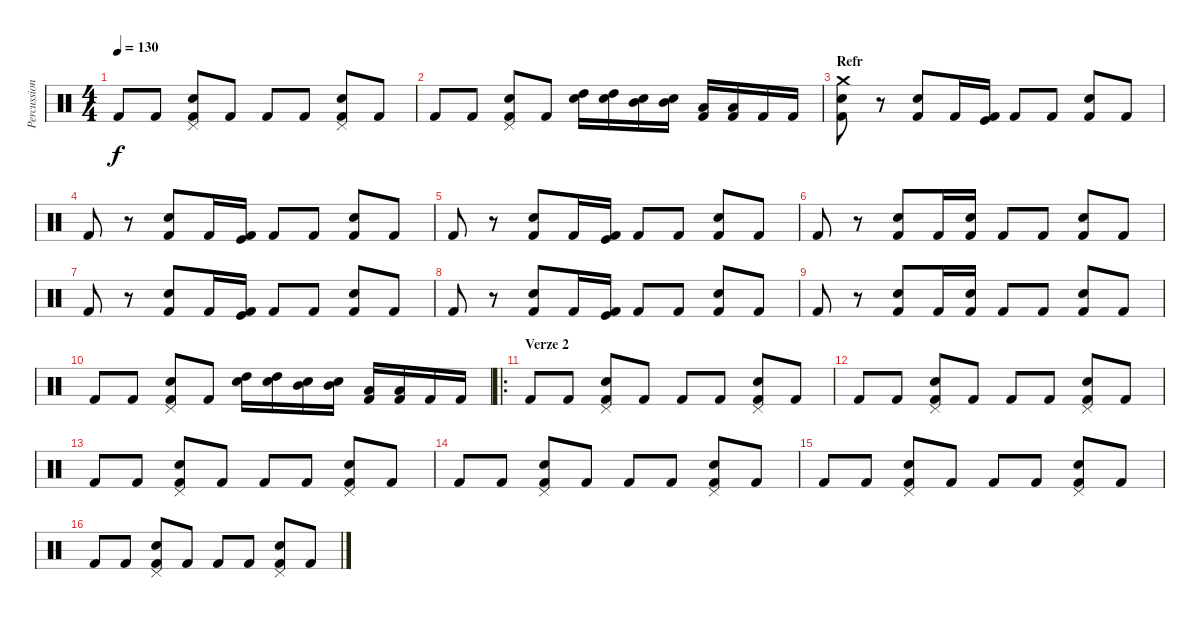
\track ("Percussion" "Percussion") {instrument percussion}
\staff {score}
\articulation defaults
\ts (4 4)
\tempo 130
\clef neutral
\ks c "Kick (hit) 2".8{dy f} "Kick (hit) 2".8
("Snare (hit) 2" "Kick (hit) 2" "Pedal Hi-Hat (hit)").8 "Kick (hit) 2".8 "Kick (hit) 2".8 "Kick (hit) 2".8 ("Snare (hit) 2" "Kick (hit) 2" "Pedal Hi-Hat (hit)").8 "Kick (hit) 2".8 |
"Kick (hit) 2".8 "Kick (hit) 2".8 ("Snare (hit) 2" "Kick (hit) 2" "Pedal Hi-Hat (hit)").8 "Kick (hit) 2".8 ("Electric Snare (hit)" "High Tom (hit)").16 ("Electric Snare (hit)" "High Tom (hit)").16 ("Electric Snare (hit)" "Mid Tom (hit)").16 ("Electric Snare (hit)" "Mid Tom (hit)").16 ("Kick (hit) 2" "Low Tom (hit)").16 ("Kick (hit) 2" "Low Tom (hit)").16 "Kick (hit) 2".16 "Kick (hit) 2".16 |
\section ("" "Refr")
("Kick (hit) 2" "Snare (hit) 2" "Crash medium (hit)").8 r.8 ("Electric Snare (hit)" "Kick (hit) 2").8 "Kick (hit) 2".16 ("Kick (hit) 2" "Kick (hit)").16 "Kick (hit) 2".8 "Kick (hit) 2".8 ("Snare (hit) 2" "Kick (hit) 2").8 "Kick (hit) 2".8 |
"Kick (hit) 2".8 r.8 ("Electric Snare (hit)" "Kick (hit) 2").8 "Kick (hit) 2".16 ("Kick (hit) 2" "Kick (hit)").16 "Kick (hit) 2".8 "Kick (hit) 2".8 ("Snare (hit) 2" "Kick (hit) 2").8 "Kick (hit) 2".8 |
"Kick (hit) 2".8 r.8 ("Electric Snare (hit)" "Kick (hit) 2").8 "Kick (hit) 2".16 ("Kick (hit) 2" "Kick (hit)").16 "Kick (hit) 2".8 "Kick (hit) 2".8 ("Snare (hit) 2" "Kick (hit) 2").8 "Kick (hit) 2".8 |
"Kick (hit) 2".8 r.8 ("Electric Snare (hit)" "Kick (hit) 2").8 "Kick (hit) 2".16 ("Kick (hit) 2" "Snare (hit) 2").16 "Kick (hit) 2".8 "Kick (hit) 2".8 ("Snare (hit) 2" "Kick (hit) 2").8 "Kick (hit) 2".8 |
"Kick (hit) 2".8 r.8 ("Electric Snare (hit)" "Kick (hit) 2").8 "Kick (hit) 2".16 ("Kick (hit) 2" "Kick (hit)").16 "Kick (hit) 2".8 "Kick (hit) 2".8 ("Snare (hit) 2" "Kick (hit) 2").8 "Kick (hit) 2".8 |
"Kick (hit) 2".8 r.8 ("Electric Snare (hit)" "Kick (hit) 2").8 "Kick (hit) 2".16 ("Kick (hit) 2" "Kick (hit)").16 "Kick (hit) 2".8 "Kick (hit) 2".8 ("Snare (hit) 2" "Kick (hit) 2").8 "Kick (hit) 2".8 |
"Kick (hit) 2".8 r.8 ("Electric Snare (hit)" "Kick (hit) 2").8 "Kick (hit) 2".16 ("Kick (hit) 2" "Snare (hit) 2").16 "Kick (hit) 2".8 "Kick (hit) 2".8 ("Snare (hit) 2" "Kick (hit) 2").8 "Kick (hit) 2".8 |
"Kick (hit) 2".8 "Kick (hit) 2".8 ("Snare (hit) 2" "Kick (hit) 2" "Pedal Hi-Hat (hit)").8 "Kick (hit) 2".8 ("Electric Snare (hit)" "High Tom (hit)").16 ("Electric Snare (hit)" "High Tom (hit)").16 ("Electric Snare (hit)" "Mid Tom (hit)").16 ("Electric Snare (hit)" "Mid Tom (hit)").16 ("Kick (hit) 2" "Low Tom (hit)").16 ("Kick (hit) 2" "Low Tom (hit)").16 "Kick (hit) 2".16 "Kick (hit) 2".16 |
\ro
\section ("" "Verze 2")
"Kick (hit) 2".8 "Kick (hit) 2".8 ("Snare (hit) 2" "Kick (hit) 2" "Pedal Hi-Hat (hit)").8 "Kick (hit) 2".8 "Kick (hit) 2".8 "Kick (hit) 2".8 ("Snare (hit) 2" "Kick (hit) 2" "Pedal Hi-Hat (hit)").8 "Kick (hit) 2".8 |
"Kick (hit) 2".8 "Kick (hit) 2".8 ("Snare (hit) 2" "Kick (hit) 2" "Pedal Hi-Hat (hit)").8 "Kick (hit) 2".8 "Kick (hit) 2".8 "Kick (hit) 2".8 ("Snare (hit) 2" "Kick (hit) 2" "Pedal Hi-Hat (hit)").8 "Kick (hit) 2".8 |
"Kick (hit) 2".8 "Kick (hit) 2".8 ("Snare (hit) 2" "Kick (hit) 2" "Pedal Hi-Hat (hit)").8 "Kick (hit) 2".8 "Kick (hit) 2".8 "Kick (hit) 2".8 ("Snare (hit) 2" "Kick (hit) 2" "Pedal Hi-Hat (hit)").8 "Kick (hit) 2".8 |
"Kick (hit) 2".8 "Kick (hit) 2".8 ("Snare (hit) 2" "Kick (hit) 2" "Pedal Hi-Hat (hit)").8 "Kick (hit) 2".8 "Kick (hit) 2".8 "Kick (hit) 2".8 ("Snare (hit) 2" "Kick (hit) 2" "Pedal Hi-Hat (hit)").8 "Kick (hit) 2".8 |
"Kick (hit) 2".8 "Kick (hit) 2".8 ("Snare (hit) 2" "Kick (hit) 2" "Pedal Hi-Hat (hit)").8 "Kick (hit) 2".8 "Kick (hit) 2".8 "Kick (hit) 2".8 ("Snare (hit) 2" "Kick (hit) 2" "Pedal Hi-Hat (hit)").8 "Kick (hit) 2".8 |
"Kick (hit) 2".8 "Kick (hit) 2".8 ("Snare (hit) 2" "Kick (hit) 2" "Pedal Hi-Hat (hit)").8 "Kick (hit) 2".8 "Kick (hit) 2".8 "Kick (hit) 2".8 ("Snare (hit) 2" "Kick (hit) 2" "Pedal Hi-Hat (hit)").8 "Kick (hit) 2".8
